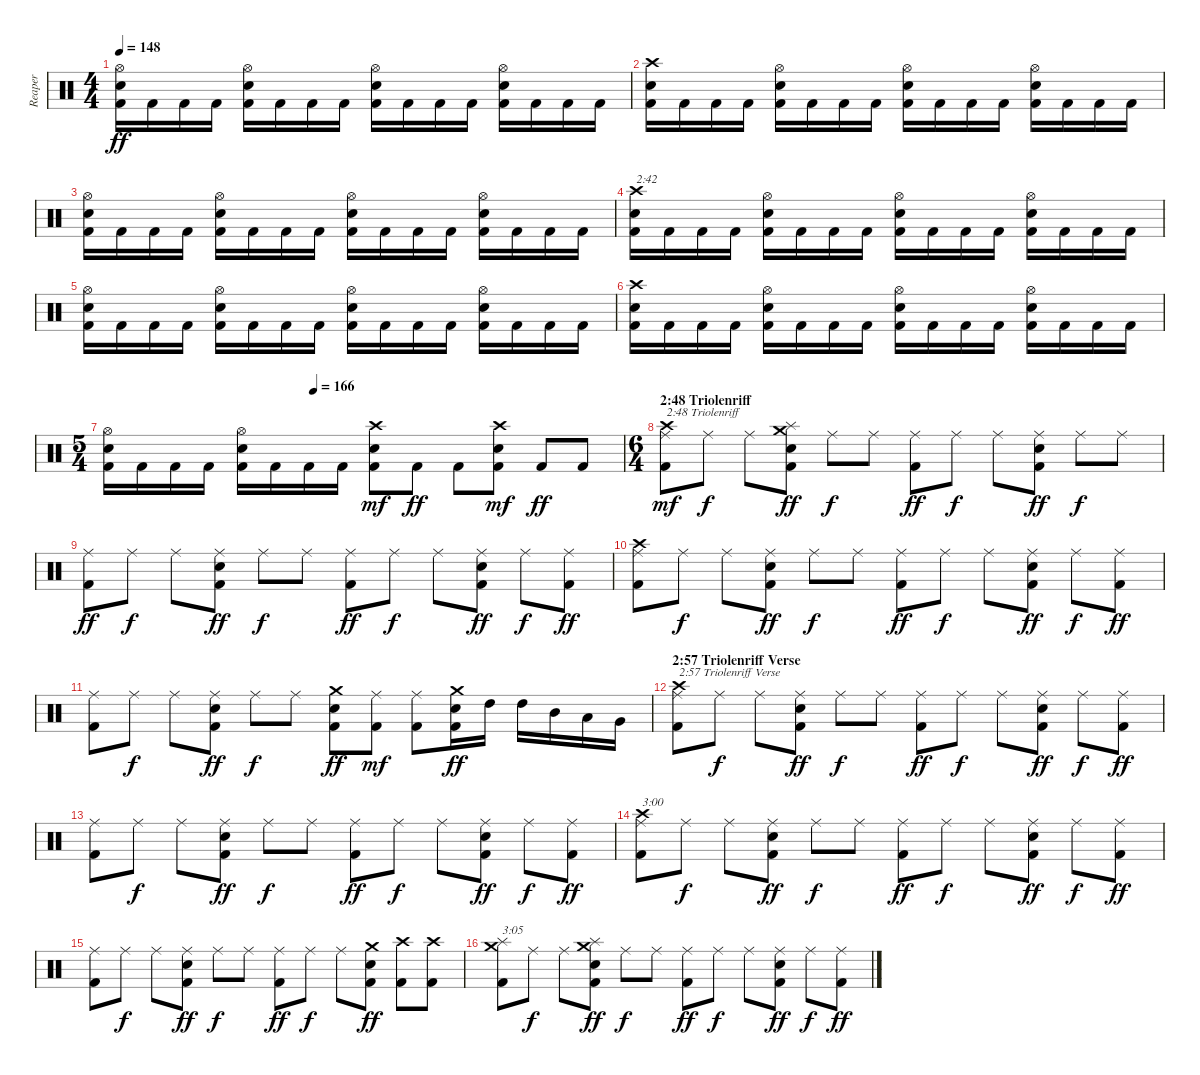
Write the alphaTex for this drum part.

\track ("Reaper" "Reaper") {instrument percussion}
\staff {score}
\articulation defaults
\ts (4 4)
\tempo 148
\clef neutral
\ks c
("Kick (hit) 2" "Electric Snare (hit)" "Hi-Hat (open)").16{dy ff} "Kick (hit) 2".16 "Kick (hit) 2".16 "Kick (hit) 2".16 ("Kick (hit) 2" "Electric Snare (hit)" "Hi-Hat (open)").16 "Kick (hit) 2".16 "Kick (hit) 2".16 "Kick (hit) 2".16 ("Kick (hit) 2" "Electric Snare (hit)" "Hi-Hat (open)").16 "Kick (hit) 2".16 "Kick (hit) 2".16 "Kick (hit) 2".16 ("Kick (hit) 2" "Electric Snare (hit)" "Hi-Hat (open)").16 "Kick (hit) 2".16 "Kick (hit) 2".16 "Kick (hit) 2".16 |
("Kick (hit) 2" "Electric Snare (hit)" "Crash high (hit)").16 "Kick (hit) 2".16 "Kick (hit) 2".16 "Kick (hit) 2".16 ("Kick (hit) 2" "Electric Snare (hit)" "Hi-Hat (open)").16 "Kick (hit) 2".16 "Kick (hit) 2".16 "Kick (hit) 2".16 ("Kick (hit) 2" "Electric Snare (hit)" "Hi-Hat (open)").16 "Kick (hit) 2".16 "Kick (hit) 2".16 "Kick (hit) 2".16 ("Kick (hit) 2" "Electric Snare (hit)" "Hi-Hat (open)").16 "Kick (hit) 2".16 "Kick (hit) 2".16 "Kick (hit) 2".16 |
("Kick (hit) 2" "Electric Snare (hit)" "Hi-Hat (open)").16 "Kick (hit) 2".16 "Kick (hit) 2".16 "Kick (hit) 2".16 ("Kick (hit) 2" "Electric Snare (hit)" "Hi-Hat (open)").16 "Kick (hit) 2".16 "Kick (hit) 2".16 "Kick (hit) 2".16 ("Kick (hit) 2" "Electric Snare (hit)" "Hi-Hat (open)").16 "Kick (hit) 2".16 "Kick (hit) 2".16 "Kick (hit) 2".16 ("Kick (hit) 2" "Electric Snare (hit)" "Hi-Hat (open)").16 "Kick (hit) 2".16 "Kick (hit) 2".16 "Kick (hit) 2".16 |
("Kick (hit) 2" "Electric Snare (hit)" "Crash high (hit)").16{txt "2:42"} "Kick (hit) 2".16 "Kick (hit) 2".16 "Kick (hit) 2".16 ("Kick (hit) 2" "Electric Snare (hit)" "Hi-Hat (open)").16 "Kick (hit) 2".16 "Kick (hit) 2".16 "Kick (hit) 2".16 ("Kick (hit) 2" "Electric Snare (hit)" "Hi-Hat (open)").16 "Kick (hit) 2".16 "Kick (hit) 2".16 "Kick (hit) 2".16 ("Kick (hit) 2" "Electric Snare (hit)" "Hi-Hat (open)").16 "Kick (hit) 2".16 "Kick (hit) 2".16 "Kick (hit) 2".16 |
("Kick (hit) 2" "Electric Snare (hit)" "Hi-Hat (open)").16 "Kick (hit) 2".16 "Kick (hit) 2".16 "Kick (hit) 2".16 ("Kick (hit) 2" "Electric Snare (hit)" "Hi-Hat (open)").16 "Kick (hit) 2".16 "Kick (hit) 2".16 "Kick (hit) 2".16 ("Kick (hit) 2" "Electric Snare (hit)" "Hi-Hat (open)").16 "Kick (hit) 2".16 "Kick (hit) 2".16 "Kick (hit) 2".16 ("Kick (hit) 2" "Electric Snare (hit)" "Hi-Hat (open)").16 "Kick (hit) 2".16 "Kick (hit) 2".16 "Kick (hit) 2".16 |
("Kick (hit) 2" "Electric Snare (hit)" "Crash high (hit)").16 "Kick (hit) 2".16 "Kick (hit) 2".16 "Kick (hit) 2".16 ("Kick (hit) 2" "Electric Snare (hit)" "Hi-Hat (open)").16 "Kick (hit) 2".16 "Kick (hit) 2".16 "Kick (hit) 2".16 ("Kick (hit) 2" "Electric Snare (hit)" "Hi-Hat (open)").16 "Kick (hit) 2".16 "Kick (hit) 2".16 "Kick (hit) 2".16 ("Kick (hit) 2" "Electric Snare (hit)" "Hi-Hat (open)").16 "Kick (hit) 2".16 "Kick (hit) 2".16 "Kick (hit) 2".16 |
\ts (5 4)
\tempo (166 0.4)
("Kick (hit) 2" "Electric Snare (hit)" "Hi-Hat (open)").16 "Kick (hit) 2".16 "Kick (hit) 2".16 "Kick (hit) 2".16 ("Kick (hit) 2" "Electric Snare (hit)" "Hi-Hat (open)").16 "Kick (hit) 2".16 "Kick (hit) 2".16 "Kick (hit) 2".16 ("Kick (hit) 2" "Electric Snare (hit)" "Crash high (hit)").8{dy mf} "Kick (hit) 2".8{dy ff} "Kick (hit) 2".8 ("Kick (hit) 2" "Electric Snare (hit)" "Crash high (hit)").8{dy mf} "Kick (hit) 2".8{dy ff} "Kick (hit) 2".8 |
\ts (6 4)
\section ("" "2:48 Triolenriff")
("Kick (hit) 2" "Ride (middle)" "Crash high (hit)").8{txt "2:48 Triolenriff" dy mf} "Ride (middle)".8{dy f} "Ride (middle)".8 ("Kick (hit) 2" "Electric Snare (hit)" "Crash medium (hit)" "Splash (hit)").8{dy ff} "Ride (middle)".8{dy f} "Ride (middle)".8 ("Kick (hit) 2" "Ride (middle)").8{dy ff} "Ride (middle)".8{dy f} "Ride (middle)".8 ("Kick (hit) 2" "Electric Snare (hit)" "Ride (middle)").8{dy ff} "Ride (middle)".8{dy f} "Ride (middle)".8 |
("Kick (hit) 2" "Ride (middle)").8{dy ff} "Ride (middle)".8{dy f} "Ride (middle)".8 ("Kick (hit) 2" "Electric Snare (hit)" "Ride (middle)").8{dy ff} "Ride (middle)".8{dy f} "Ride (middle)".8 ("Kick (hit) 2" "Ride (middle)").8{dy ff} "Ride (middle)".8{dy f} "Ride (middle)".8 ("Kick (hit) 2" "Electric Snare (hit)" "Ride (middle)").8{dy ff} "Ride (middle)".8{dy f} ("Kick (hit) 2" "Ride (middle)").8{dy ff} |
("Kick (hit) 2" "Ride (middle)" "Crash high (hit)").8 "Ride (middle)".8{dy f} "Ride (middle)".8 ("Kick (hit) 2" "Electric Snare (hit)" "Ride (middle)").8{dy ff} "Ride (middle)".8{dy f} "Ride (middle)".8 ("Kick (hit) 2" "Ride (middle)").8{dy ff} "Ride (middle)".8{dy f} "Ride (middle)".8 ("Kick (hit) 2" "Electric Snare (hit)" "Ride (middle)").8{dy ff} "Ride (middle)".8{dy f} ("Kick (hit) 2" "Ride (middle)").8{dy ff} |
("Kick (hit) 2" "Ride (middle)").8 "Ride (middle)".8{dy f} "Ride (middle)".8 ("Kick (hit) 2" "Electric Snare (hit)" "Ride (middle)").8{dy ff} "Ride (middle)".8{dy f} "Ride (middle)".8 ("Kick (hit) 2" "Electric Snare (hit)" "Crash medium (hit)").8{dy ff} ("Kick (hit) 2" "Ride (middle)").8{dy mf} ("Kick (hit) 2" "Ride (middle)").8 ("Kick (hit) 2" "Electric Snare (hit)" "Crash medium (hit)").16{dy ff} "High Tom (hit)".16 "High Tom (hit)".16 "Mid Tom (hit)".16 "Low Tom (hit)".16 "Very Low Tom (hit)".16 |
\section ("" "2:57 Triolenriff Verse")
("Kick (hit) 2" "Ride (middle)" "Crash high (hit)").8{txt "2:57 Triolenriff Verse"} "Ride (middle)".8{dy f} "Ride (middle)".8 ("Kick (hit) 2" "Electric Snare (hit)" "Ride (middle)").8{dy ff} "Ride (middle)".8{dy f} "Ride (middle)".8 ("Kick (hit) 2" "Ride (middle)").8{dy ff} "Ride (middle)".8{dy f} "Ride (middle)".8 ("Kick (hit) 2" "Electric Snare (hit)" "Ride (middle)").8{dy ff} "Ride (middle)".8{dy f} ("Kick (hit) 2" "Ride (middle)").8{dy ff} |
("Kick (hit) 2" "Ride (middle)").8 "Ride (middle)".8{dy f} "Ride (middle)".8 ("Kick (hit) 2" "Electric Snare (hit)" "Ride (middle)").8{dy ff} "Ride (middle)".8{dy f} "Ride (middle)".8 ("Kick (hit) 2" "Ride (middle)").8{dy ff} "Ride (middle)".8{dy f} "Ride (middle)".8 ("Kick (hit) 2" "Electric Snare (hit)" "Ride (middle)").8{dy ff} "Ride (middle)".8{dy f} ("Kick (hit) 2" "Ride (middle)").8{dy ff} |
("Kick (hit) 2" "Ride (middle)" "Crash high (hit)").8{txt "3:00"} "Ride (middle)".8{dy f} "Ride (middle)".8 ("Kick (hit) 2" "Electric Snare (hit)" "Ride (middle)").8{dy ff} "Ride (middle)".8{dy f} "Ride (middle)".8 ("Kick (hit) 2" "Ride (middle)").8{dy ff} "Ride (middle)".8{dy f} "Ride (middle)".8 ("Kick (hit) 2" "Electric Snare (hit)" "Ride (middle)").8{dy ff} "Ride (middle)".8{dy f} ("Kick (hit) 2" "Ride (middle)").8{dy ff} |
("Kick (hit) 2" "Ride (middle)").8 "Ride (middle)".8{dy f} "Ride (middle)".8 ("Kick (hit) 2" "Electric Snare (hit)" "Ride (middle)").8{dy ff} "Ride (middle)".8{dy f} "Ride (middle)".8 ("Kick (hit) 2" "Ride (middle)").8{dy ff} "Ride (middle)".8{dy f} "Ride (middle)".8 ("Kick (hit) 2" "Electric Snare (hit)" "Crash medium (hit)").8{dy ff} ("Kick (hit) 2" "Crash high (hit)").8 ("Kick (hit) 2" "Crash high (hit)").8 |
("Kick (hit) 2" "Splash (hit)" "Crash medium (hit)").8{txt "3:05"} "Ride (middle)".8{dy f} "Ride (middle)".8 ("Kick (hit) 2" "Electric Snare (hit)" "Splash (hit)" "Crash medium (hit)").8{dy ff} "Ride (middle)".8{dy f} "Ride (middle)".8 ("Kick (hit) 2" "Ride (middle)").8{dy ff} "Ride (middle)".8{dy f} "Ride (middle)".8 ("Kick (hit) 2" "Electric Snare (hit)" "Ride (middle)").8{dy ff} "Ride (middle)".8{dy f} ("Kick (hit) 2" "Ride (middle)").8{dy ff}
